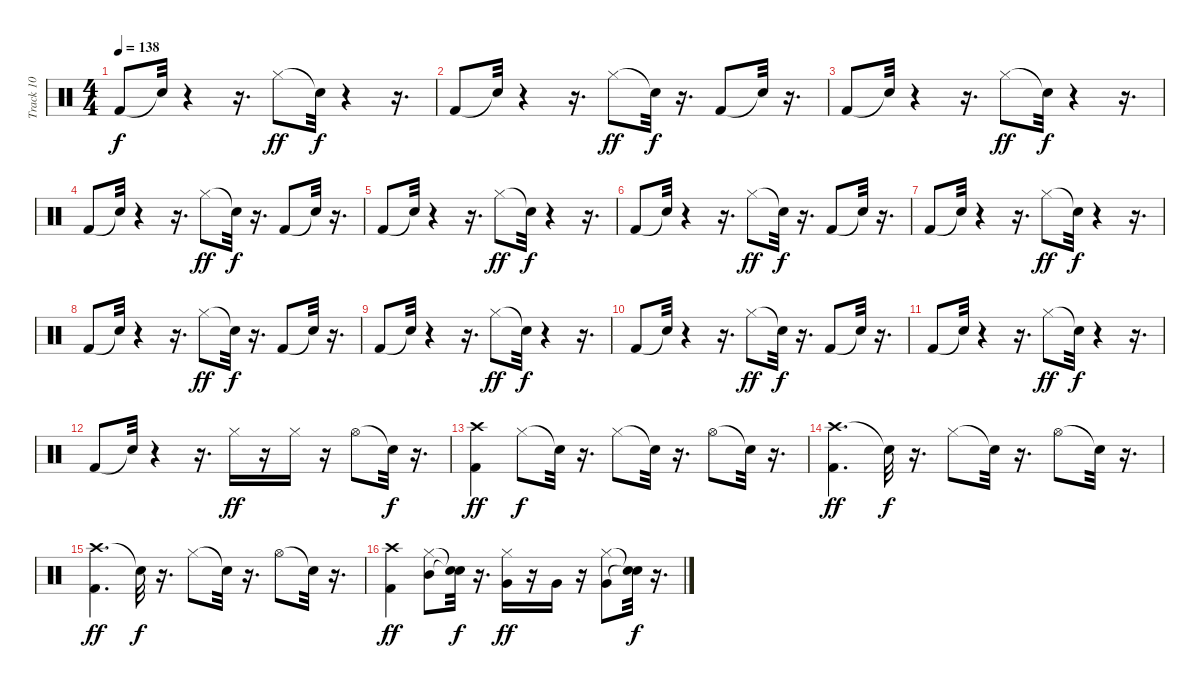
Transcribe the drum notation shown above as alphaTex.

\track ("Track 10" "Track 10") {instrument percussion}
\staff {score}
\articulation defaults
\ts (4 4)
\tempo 138
\clef neutral
\ks c "Kick (hit) 2".8{dy f} "Snare (hit)"{t}.32
r.4 r.16{d} "Hi-Hat (closed)".8{dy ff} "Snare (hit)"{t}.32{dy f} r.4 r.16{d} |
"Kick (hit) 2".8 "Snare (hit)"{t}.32 r.4 r.16{d} "Hi-Hat (closed)".8{dy ff} "Snare (hit)"{t}.32{dy f} r.16{d} "Kick (hit) 2".8 "Snare (hit)"{t}.32 r.16{d} |
"Kick (hit) 2".8 "Snare (hit)"{t}.32 r.4 r.16{d} "Hi-Hat (closed)".8{dy ff} "Snare (hit)"{t}.32{dy f} r.4 r.16{d} |
"Kick (hit) 2".8 "Snare (hit)"{t}.32 r.4 r.16{d} "Hi-Hat (closed)".8{dy ff} "Snare (hit)"{t}.32{dy f} r.16{d} "Kick (hit) 2".8 "Snare (hit)"{t}.32 r.16{d} |
"Kick (hit) 2".8 "Snare (hit)"{t}.32 r.4 r.16{d} "Hi-Hat (closed)".8{dy ff} "Snare (hit)"{t}.32{dy f} r.4 r.16{d} |
"Kick (hit) 2".8 "Snare (hit)"{t}.32 r.4 r.16{d} "Hi-Hat (closed)".8{dy ff} "Snare (hit)"{t}.32{dy f} r.16{d} "Kick (hit) 2".8 "Snare (hit)"{t}.32 r.16{d} |
"Kick (hit) 2".8 "Snare (hit)"{t}.32 r.4 r.16{d} "Hi-Hat (closed)".8{dy ff} "Snare (hit)"{t}.32{dy f} r.4 r.16{d} |
"Kick (hit) 2".8 "Snare (hit)"{t}.32 r.4 r.16{d} "Hi-Hat (closed)".8{dy ff} "Snare (hit)"{t}.32{dy f} r.16{d} "Kick (hit) 2".8 "Snare (hit)"{t}.32 r.16{d} |
"Kick (hit) 2".8 "Snare (hit)"{t}.32 r.4 r.16{d} "Hi-Hat (closed)".8{dy ff} "Snare (hit)"{t}.32{dy f} r.4 r.16{d} |
"Kick (hit) 2".8 "Snare (hit)"{t}.32 r.4 r.16{d} "Hi-Hat (closed)".8{dy ff} "Snare (hit)"{t}.32{dy f} r.16{d} "Kick (hit) 2".8 "Snare (hit)"{t}.32 r.16{d} |
"Kick (hit) 2".8 "Snare (hit)"{t}.32 r.4 r.16{d} "Hi-Hat (closed)".8{dy ff} "Snare (hit)"{t}.32{dy f} r.4 r.16{d} |
"Kick (hit) 2".8 "Snare (hit)"{t}.32 r.4 r.16{d} "Hi-Hat (closed)".16{dy ff} r.16 "Hi-Hat (closed)".16 r.16 "Hi-Hat (open)".8 "Snare (hit)"{t}.32{dy f} r.16{d} |
("Crash high (hit)" "Kick (hit) 2").4{dy ff} "Hi-Hat (closed)".8{dy f} "Snare (hit)"{t}.32 r.16{d} "Hi-Hat (closed)".8 "Snare (hit)"{t}.32 r.16{d} "Hi-Hat (open)".8 "Snare (hit)"{t}.32 r.16{d} |
("Crash high (hit)" "Kick (hit) 2").4{d dy ff} "Snare (hit)"{t}.32{dy f} r.16{d} "Hi-Hat (closed)".8 "Snare (hit)"{t}.32 r.16{d} "Hi-Hat (open)".8 "Snare (hit)"{t}.32 r.16{d} |
("Crash high (hit)" "Kick (hit) 2").4{d dy ff} "Snare (hit)"{t}.32{dy f} r.16{d} "Hi-Hat (closed)".8 "Snare (hit)"{t}.32 r.16{d} "Hi-Hat (open)".8 "Snare (hit)"{t}.32 r.16{d} |
("Crash high (hit)" "Kick (hit) 2").4{dy ff} ("Mid Tom (hit)" "Hi-Hat (closed)").8 ("Snare (hit)"{t} "Snare (hit)"{t}).32{dy f} r.16{d} ("Very Low Tom (hit)" "Hi-Hat (closed)").16{dy ff} r.16 "Very Low Tom (hit)".16 r.16 ("Very Low Tom (hit)" "Hi-Hat (closed)").8 ("Snare (hit)"{t} "Snare (hit)"{t}).32{dy f} r.16{d}
